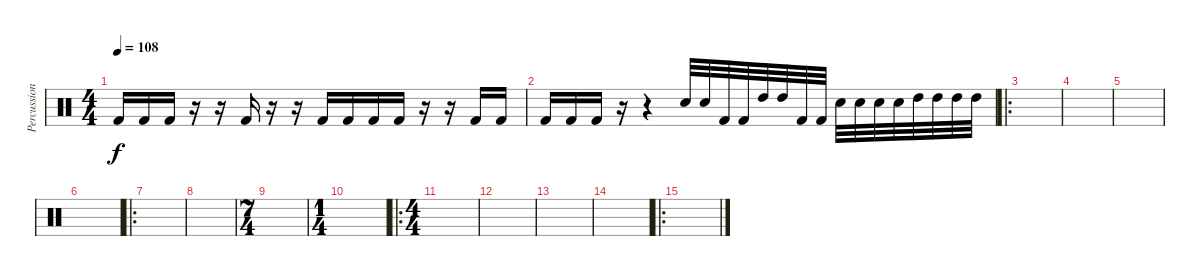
\track ("Percussion" "Percussion") {instrument percussion}
\staff {score}
\articulation defaults
\ts (4 4)
\tempo 108
\clef neutral
\ks c "Kick (hit) 2".16{dy f} "Kick (hit) 2".16 "Kick (hit) 2".16
r.16 r.16 "Kick (hit) 2".16 r.16 r.16 "Kick (hit) 2".16 "Kick (hit) 2".16 "Kick (hit) 2".16 "Kick (hit) 2".16 r.16 r.16 "Kick (hit) 2".16 "Kick (hit) 2".16 |
"Kick (hit) 2".16 "Kick (hit) 2".16 "Kick (hit) 2".16 r.16 r.4 "Electric Snare (hit)".32 "Electric Snare (hit)".32 "Kick (hit) 2".32 "Kick (hit) 2".32 "High Tom (hit)".32 "High Tom (hit)".32 "Kick (hit) 2".32 "Kick (hit) 2".32 "Electric Snare (hit)".32 "Electric Snare (hit)".32 "Electric Snare (hit)".32 "Electric Snare (hit)".32 "High Tom (hit)".32 "High Tom (hit)".32 "High Tom (hit)".32 "High Tom (hit)".32 |
\ro
|
|
|
|
\ro
|
|
\ts (7 4)
|
\ts (1 4)
|
\ro
\ts (4 4)
|
|
|
|
\ro
